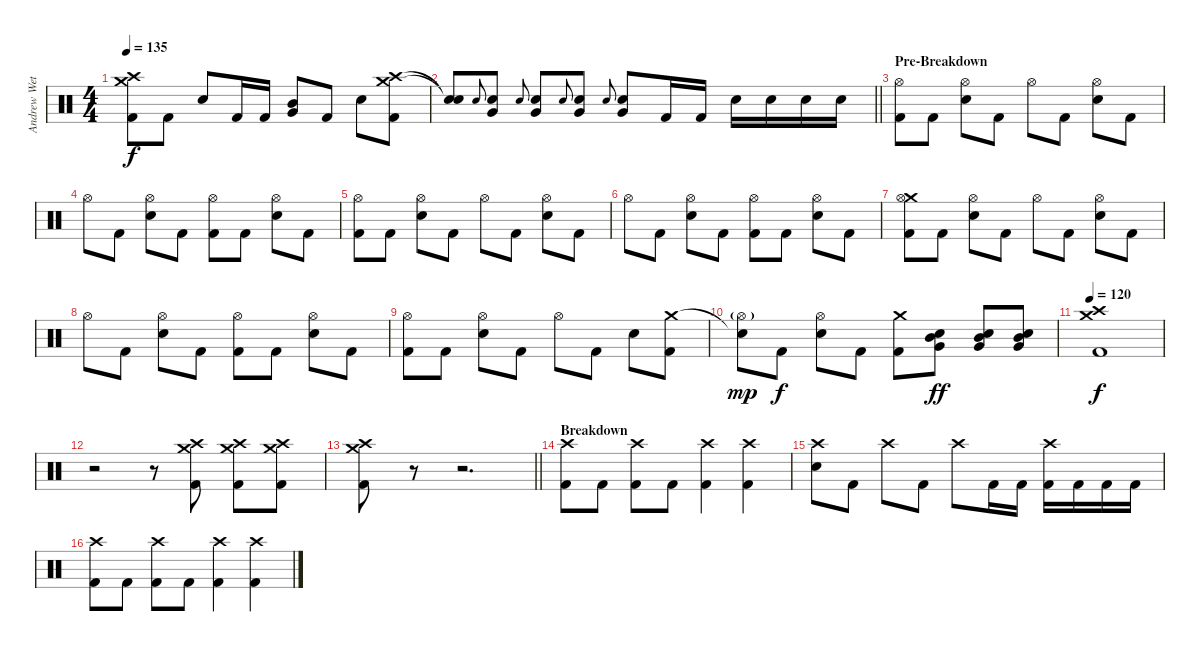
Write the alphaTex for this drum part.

\track ("Andrew Wetzel" "Andrew Wet") {instrument percussion}
\staff
\articulation defaults
\ts (4 4)
\tempo 135
\clef neutral
\ks c
("Crash medium (hit)" "Crash high (hit)" "Kick (hit) 2").8{dy f} "Kick (hit) 2".8 "Snare (hit) 2".8 "Kick (hit) 2".16 "Kick (hit) 2".16 ("Mid Tom (hit)" "Very Low Tom (hit)").8 "Kick (hit) 2".8 "Snare (hit) 2".8 ("Crash medium (hit)" "Crash high (hit)" "Kick (hit) 2").8 |
\barLineRight lightlight
("Snare (hit)"{t} "Snare (hit)"{t}).8 "Snare (hit) 2".8{gr onbeat} ("Very Low Tom (hit)" "Snare (hit) 2").8 "Snare (hit) 2".8{gr onbeat} ("Very Low Tom (hit)" "Snare (hit) 2").8 "Snare (hit) 2".8{gr onbeat} ("Very Low Tom (hit)" "Snare (hit) 2").8 "Snare (hit) 2".8{gr onbeat} ("Very Low Tom (hit)" "Snare (hit) 2").8 "Kick (hit) 2".16 "Kick (hit) 2".16 "Snare (hit) 2".16 "Snare (hit) 2".16 "Snare (hit) 2".16 "Snare (hit) 2".16 |
\section ("" "Pre-Breakdown")
("Hi-Hat (open)" "Kick (hit) 2").8 "Kick (hit) 2".8 ("Hi-Hat (open)" "Snare (hit) 2").8 "Kick (hit) 2".8 "Hi-Hat (open)".8 "Kick (hit) 2".8 ("Hi-Hat (open)" "Snare (hit) 2").8 "Kick (hit) 2".8 |
"Hi-Hat (open)".8 "Kick (hit) 2".8 ("Hi-Hat (open)" "Snare (hit) 2").8 "Kick (hit) 2".8 ("Hi-Hat (open)" "Kick (hit) 2").8 "Kick (hit) 2".8 ("Hi-Hat (open)" "Snare (hit) 2").8 "Kick (hit) 2".8 |
("Hi-Hat (open)" "Kick (hit) 2").8 "Kick (hit) 2".8 ("Hi-Hat (open)" "Snare (hit) 2").8 "Kick (hit) 2".8 "Hi-Hat (open)".8 "Kick (hit) 2".8 ("Hi-Hat (open)" "Snare (hit) 2").8 "Kick (hit) 2".8 |
"Hi-Hat (open)".8 "Kick (hit) 2".8 ("Hi-Hat (open)" "Snare (hit) 2").8 "Kick (hit) 2".8 ("Hi-Hat (open)" "Kick (hit) 2").8 "Kick (hit) 2".8 ("Hi-Hat (open)" "Snare (hit) 2").8 "Kick (hit) 2".8 |
("Crash medium (hit)" "Hi-Hat (open)" "Kick (hit) 2").8 "Kick (hit) 2".8 ("Hi-Hat (open)" "Snare (hit) 2").8 "Kick (hit) 2".8 "Hi-Hat (open)".8 "Kick (hit) 2".8 ("Hi-Hat (open)" "Snare (hit) 2").8 "Kick (hit) 2".8 |
"Hi-Hat (open)".8 "Kick (hit) 2".8 ("Hi-Hat (open)" "Snare (hit) 2").8 "Kick (hit) 2".8 ("Hi-Hat (open)" "Kick (hit) 2").8 "Kick (hit) 2".8 ("Hi-Hat (open)" "Snare (hit) 2").8 "Kick (hit) 2".8 |
("Hi-Hat (open)" "Kick (hit) 2").8 "Kick (hit) 2".8 ("Hi-Hat (open)" "Snare (hit) 2").8 "Kick (hit) 2".8 "Hi-Hat (open)".8 "Kick (hit) 2".8 "Snare (hit) 2".8 ("Crash medium (hit)" "Kick (hit) 2").8 |
("Snare (hit)"{t} "Hi-Hat (open)"{g}).8{dy mp} "Kick (hit) 2".8{dy f} ("Hi-Hat (open)" "Snare (hit) 2").8 "Kick (hit) 2".8 ("Crash medium (hit)" "Kick (hit) 2").8 ("Mid Tom (hit)" "Very Low Tom (hit)" "Snare (hit) 2").8{dy ff} ("Mid Tom (hit)" "Very Low Tom (hit)" "Snare (hit) 2").8 ("Mid Tom (hit)" "Very Low Tom (hit)" "Snare (hit) 2").8 |
\tempo 120
("Crash medium (hit)" "Crash high (hit)" "Kick (hit) 2").1{dy f} |
r.2 r.8 ("Crash medium (hit)" "Crash high (hit)" "Kick (hit) 2").8 ("Crash medium (hit)" "Crash high (hit)" "Kick (hit) 2").8 ("Crash medium (hit)" "Crash high (hit)" "Kick (hit) 2").8 |
\barLineRight lightlight
("Crash medium (hit)" "Crash high (hit)" "Kick (hit) 2").8 r.8{volume 0} r.2{d} |
\section ("" "Breakdown")
("Crash high (hit)" "Kick (hit) 2").8{volume 13} "Kick (hit) 2".8 ("Crash high (hit)" "Kick (hit) 2").8 "Kick (hit) 2".8 ("Crash high (hit)" "Kick (hit) 2").4 ("Crash high (hit)" "Kick (hit) 2").4 |
("Crash high (hit)" "Snare (hit) 2").8 "Kick (hit) 2".8 "Crash high (hit)".8 "Kick (hit) 2".8 "Crash high (hit)".8 "Kick (hit) 2".16 "Kick (hit) 2".16 ("Crash high (hit)" "Kick (hit) 2").16 "Kick (hit) 2".16 "Kick (hit) 2".16 "Kick (hit) 2".16 |
("Crash high (hit)" "Kick (hit) 2").8 "Kick (hit) 2".8 ("Crash high (hit)" "Kick (hit) 2").8 "Kick (hit) 2".8 ("Crash high (hit)" "Kick (hit) 2").4 ("Crash high (hit)" "Kick (hit) 2").4
